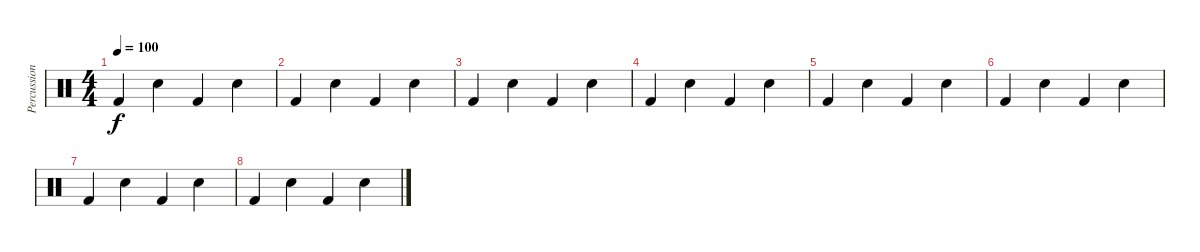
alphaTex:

\track ("Percussions" "Percussion") {instrument percussion}
\staff {score}
\articulation defaults
\ts (4 4)
\tempo 100
\clef neutral
\ks c "Kick (hit) 2".4{dy f} "Snare (hit) 2".4 "Kick (hit) 2".4 "Snare (hit) 2".4
|
"Kick (hit) 2".4 "Snare (hit) 2".4 "Kick (hit) 2".4 "Snare (hit) 2".4 |
"Kick (hit) 2".4 "Snare (hit) 2".4 "Kick (hit) 2".4 "Snare (hit) 2".4 |
"Kick (hit) 2".4 "Snare (hit) 2".4 "Kick (hit) 2".4 "Snare (hit) 2".4 |
"Kick (hit) 2".4 "Snare (hit) 2".4 "Kick (hit) 2".4 "Snare (hit) 2".4 |
"Kick (hit) 2".4 "Snare (hit) 2".4 "Kick (hit) 2".4 "Snare (hit) 2".4 |
"Kick (hit) 2".4 "Snare (hit) 2".4 "Kick (hit) 2".4 "Snare (hit) 2".4 |
"Kick (hit) 2".4 "Snare (hit) 2".4 "Kick (hit) 2".4 "Snare (hit) 2".4
